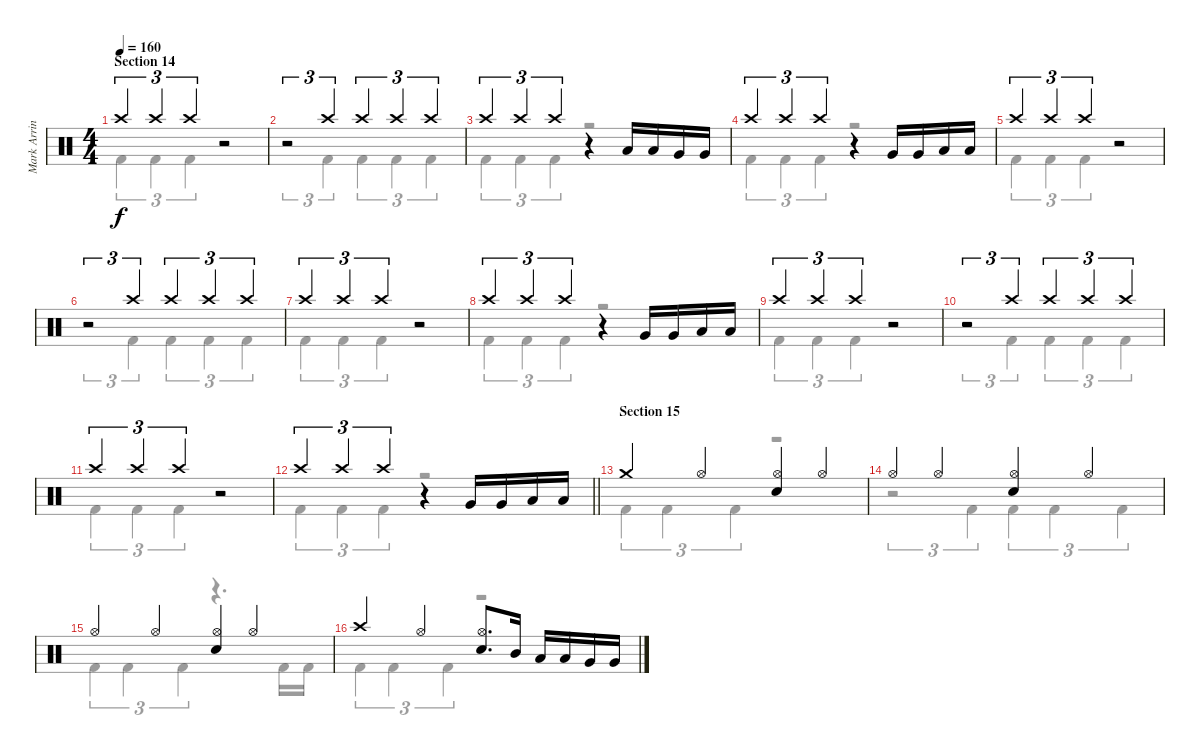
\track ("Mark Arrington – drums" "Mark Arrin") {instrument percussion}
\staff {score}
\articulation defaults
\voice
\ts (4 4)
\section ("" "Section 14")
\tempo 160
\clef neutral
\ks c "Crash high (hit)".4{tu (3 2) dy f} "Crash high (hit)".4{tu (3 2)} "Crash high (hit)".4{tu (3 2)}
r.2 |
r.2{tu (3 2)} "Crash high (hit)".4{tu (3 2)} "Crash high (hit)".4{tu (3 2)} "Crash high (hit)".4{tu (3 2)} "Crash high (hit)".4{tu (3 2)} |
"Crash high (hit)".4{tu (3 2)} "Crash high (hit)".4{tu (3 2)} "Crash high (hit)".4{tu (3 2)} r.4 "Low Tom (hit)".16 "Low Tom (hit)".16 "Very Low Tom (hit)".16 "Very Low Tom (hit)".16 |
"Crash high (hit)".4{tu (3 2)} "Crash high (hit)".4{tu (3 2)} "Crash high (hit)".4{tu (3 2)} r.4 "Very Low Tom (hit)".16 "Very Low Tom (hit)".16 "Low Floor Tom (hit)".16 "Low Floor Tom (hit)".16 |
"Crash high (hit)".4{tu (3 2)} "Crash high (hit)".4{tu (3 2)} "Crash high (hit)".4{tu (3 2)} r.2 |
r.2{tu (3 2)} "Crash high (hit)".4{tu (3 2)} "Crash high (hit)".4{tu (3 2)} "Crash high (hit)".4{tu (3 2)} "Crash high (hit)".4{tu (3 2)} |
"Crash high (hit)".4{tu (3 2)} "Crash high (hit)".4{tu (3 2)} "Crash high (hit)".4{tu (3 2)} r.2 |
"Crash high (hit)".4{tu (3 2)} "Crash high (hit)".4{tu (3 2)} "Crash high (hit)".4{tu (3 2)} r.4 "Very Low Tom (hit)".16 "Very Low Tom (hit)".16 "Low Floor Tom (hit)".16 "Low Floor Tom (hit)".16 |
"Crash high (hit)".4{tu (3 2)} "Crash high (hit)".4{tu (3 2)} "Crash high (hit)".4{tu (3 2)} r.2 |
r.2{tu (3 2)} "Crash high (hit)".4{tu (3 2)} "Crash high (hit)".4{tu (3 2)} "Crash high (hit)".4{tu (3 2)} "Crash high (hit)".4{tu (3 2)} |
"Crash high (hit)".4{tu (3 2)} "Crash high (hit)".4{tu (3 2)} "Crash high (hit)".4{tu (3 2)} r.2 |
\barLineRight lightlight "Crash high (hit)".4{tu (3 2)} "Crash high (hit)".4{tu (3 2)} "Crash high (hit)".4{tu (3 2)}
r.4 "Very Low Tom (hit)".16 "Very Low Tom (hit)".16 "Low Floor Tom (hit)".16 "Low Floor Tom (hit)".16 |
\section ("" "Section 15")
"Crash medium (hit)".4 "Hi-Hat (open)".4 ("Hi-Hat (open)" "Electric Snare (hit)").4 "Hi-Hat (open)".4 |
"Hi-Hat (open)".4 "Hi-Hat (open)".4 ("Hi-Hat (open)" "Electric Snare (hit)").4 "Hi-Hat (open)".4 |
"Hi-Hat (open)".4 "Hi-Hat (open)".4 ("Hi-Hat (open)" "Electric Snare (hit)").4 "Hi-Hat (open)".4 |
"Crash high (hit)".4 "Hi-Hat (open)".4 ("Hi-Hat (open)" "Electric Snare (hit)").8{d} "Mid Tom (hit)".16 "Low Tom (hit)".16 "Low Tom (hit)".16 "Very Low Tom (hit)".16 "Very Low Tom (hit)".16
\voice
\clef neutral
\ottava regular
\simile none
\ks c "Kick (hit) 2".4{tu (3 2) dy f} "Kick (hit) 2".4{tu (3 2)} "Kick (hit) 2".4{tu (3 2)}
r.2 |
r.2{tu (3 2)} "Kick (hit) 2".4{tu (3 2)} "Kick (hit) 2".4{tu (3 2)} "Kick (hit) 2".4{tu (3 2)} "Kick (hit) 2".4{tu (3 2)} |
"Kick (hit) 2".4{tu (3 2)} "Kick (hit) 2".4{tu (3 2)} "Kick (hit) 2".4{tu (3 2)} r.2 |
"Kick (hit) 2".4{tu (3 2)} "Kick (hit) 2".4{tu (3 2)} "Kick (hit) 2".4{tu (3 2)} r.2 |
"Kick (hit) 2".4{tu (3 2)} "Kick (hit) 2".4{tu (3 2)} "Kick (hit) 2".4{tu (3 2)} r.2 |
r.2{tu (3 2)} "Kick (hit) 2".4{tu (3 2)} "Kick (hit) 2".4{tu (3 2)} "Kick (hit) 2".4{tu (3 2)} "Kick (hit) 2".4{tu (3 2)} |
"Kick (hit) 2".4{tu (3 2)} "Kick (hit) 2".4{tu (3 2)} "Kick (hit) 2".4{tu (3 2)} r.2 |
"Kick (hit) 2".4{tu (3 2)} "Kick (hit) 2".4{tu (3 2)} "Kick (hit) 2".4{tu (3 2)} r.2 |
"Kick (hit) 2".4{tu (3 2)} "Kick (hit) 2".4{tu (3 2)} "Kick (hit) 2".4{tu (3 2)} r.2 |
r.2{tu (3 2)} "Kick (hit) 2".4{tu (3 2)} "Kick (hit) 2".4{tu (3 2)} "Kick (hit) 2".4{tu (3 2)} "Kick (hit) 2".4{tu (3 2)} |
"Kick (hit) 2".4{tu (3 2)} "Kick (hit) 2".4{tu (3 2)} "Kick (hit) 2".4{tu (3 2)} r.2 |
\barLineRight lightlight "Kick (hit) 2".4{tu (3 2)} "Kick (hit) 2".4{tu (3 2)} "Kick (hit) 2".4{tu (3 2)}
r.2 |
"Kick (hit) 2".4{tu (3 2)} "Kick (hit) 2".4{tu (3 2)} "Kick (hit) 2".4{tu (3 2)} r.2 |
r.2{tu (3 2)} "Kick (hit) 2".4{tu (3 2)} "Kick (hit) 2".4{tu (3 2)} "Kick (hit) 2".4{tu (3 2)} "Kick (hit) 2".4{tu (3 2)} |
"Kick (hit) 2".4{tu (3 2)} "Kick (hit) 2".4{tu (3 2)} "Kick (hit) 2".4{tu (3 2)} r.4{d} "Kick (hit) 2".16 "Kick (hit) 2".16 |
"Kick (hit) 2".4{tu (3 2)} "Kick (hit) 2".4{tu (3 2)} "Kick (hit) 2".4{tu (3 2)} r.2
